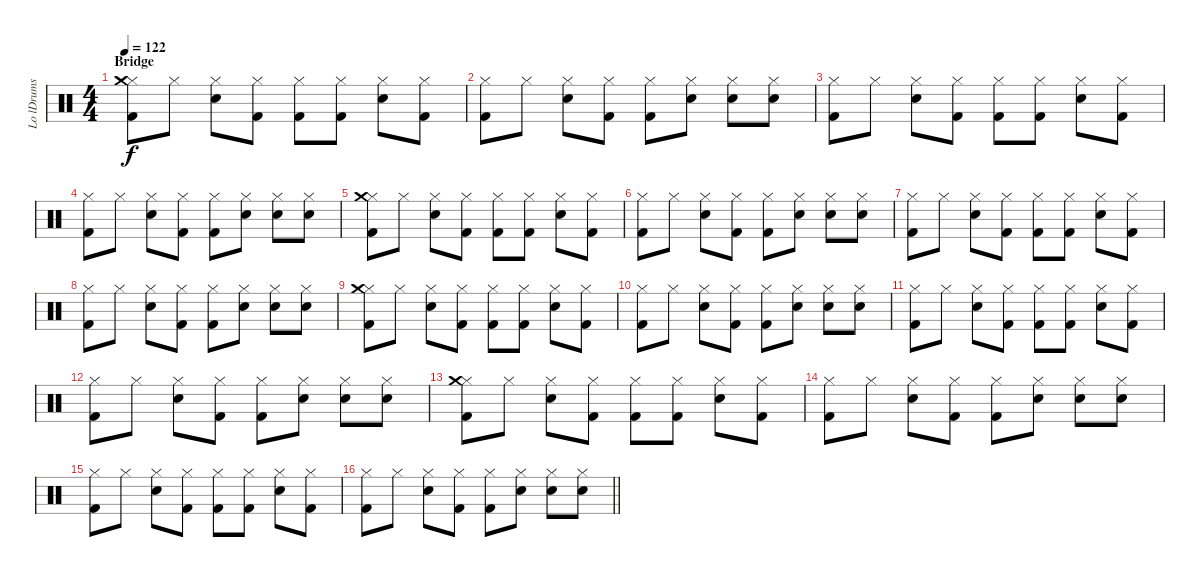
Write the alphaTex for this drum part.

\track ("Lo lDrums" "Lo lDrums") {instrument percussion}
\staff {score}
\articulation defaults
\ts (4 4)
\section ("" "Bridge")
\tempo 122
\clef neutral
\ks c
("Hi-Hat (closed)" "Crash medium (hit)" "Kick (hit) 2").8{dy f} "Hi-Hat (closed)".8 ("Hi-Hat (closed)" "Snare (hit) 2").8 ("Hi-Hat (closed)" "Kick (hit) 2").8 ("Hi-Hat (closed)" "Kick (hit) 2").8 ("Hi-Hat (closed)" "Kick (hit) 2").8 ("Hi-Hat (closed)" "Snare (hit) 2").8 ("Hi-Hat (closed)" "Kick (hit) 2").8 |
("Kick (hit) 2" "Hi-Hat (closed)").8 "Hi-Hat (closed)".8 ("Snare (hit) 2" "Hi-Hat (closed)").8 ("Kick (hit) 2" "Hi-Hat (closed)").8 ("Kick (hit) 2" "Hi-Hat (closed)").8 ("Snare (hit) 2" "Hi-Hat (closed)").8 ("Snare (hit) 2" "Hi-Hat (closed)").8 ("Snare (hit) 2" "Hi-Hat (closed)").8 |
("Kick (hit) 2" "Hi-Hat (closed)").8 "Hi-Hat (closed)".8 ("Hi-Hat (closed)" "Snare (hit) 2").8 ("Hi-Hat (closed)" "Kick (hit) 2").8 ("Hi-Hat (closed)" "Kick (hit) 2").8 ("Hi-Hat (closed)" "Kick (hit) 2").8 ("Hi-Hat (closed)" "Snare (hit) 2").8 ("Hi-Hat (closed)" "Kick (hit) 2").8 |
("Kick (hit) 2" "Hi-Hat (closed)").8 "Hi-Hat (closed)".8 ("Snare (hit) 2" "Hi-Hat (closed)").8 ("Kick (hit) 2" "Hi-Hat (closed)").8 ("Kick (hit) 2" "Hi-Hat (closed)").8 ("Snare (hit) 2" "Hi-Hat (closed)").8 ("Snare (hit) 2" "Hi-Hat (closed)").8 ("Snare (hit) 2" "Hi-Hat (closed)").8 |
("Hi-Hat (closed)" "Crash medium (hit)" "Kick (hit) 2").8 "Hi-Hat (closed)".8 ("Hi-Hat (closed)" "Snare (hit) 2").8 ("Hi-Hat (closed)" "Kick (hit) 2").8 ("Hi-Hat (closed)" "Kick (hit) 2").8 ("Hi-Hat (closed)" "Kick (hit) 2").8 ("Hi-Hat (closed)" "Snare (hit) 2").8 ("Hi-Hat (closed)" "Kick (hit) 2").8 |
("Kick (hit) 2" "Hi-Hat (closed)").8 "Hi-Hat (closed)".8 ("Snare (hit) 2" "Hi-Hat (closed)").8 ("Kick (hit) 2" "Hi-Hat (closed)").8 ("Kick (hit) 2" "Hi-Hat (closed)").8 ("Snare (hit) 2" "Hi-Hat (closed)").8 ("Snare (hit) 2" "Hi-Hat (closed)").8 ("Snare (hit) 2" "Hi-Hat (closed)").8 |
("Kick (hit) 2" "Hi-Hat (closed)").8 "Hi-Hat (closed)".8 ("Hi-Hat (closed)" "Snare (hit) 2").8 ("Hi-Hat (closed)" "Kick (hit) 2").8 ("Hi-Hat (closed)" "Kick (hit) 2").8 ("Hi-Hat (closed)" "Kick (hit) 2").8 ("Hi-Hat (closed)" "Snare (hit) 2").8 ("Hi-Hat (closed)" "Kick (hit) 2").8 |
("Kick (hit) 2" "Hi-Hat (closed)").8 "Hi-Hat (closed)".8 ("Snare (hit) 2" "Hi-Hat (closed)").8 ("Kick (hit) 2" "Hi-Hat (closed)").8 ("Kick (hit) 2" "Hi-Hat (closed)").8 ("Snare (hit) 2" "Hi-Hat (closed)").8 ("Snare (hit) 2" "Hi-Hat (closed)").8 ("Snare (hit) 2" "Hi-Hat (closed)").8 |
("Hi-Hat (closed)" "Crash medium (hit)" "Kick (hit) 2").8 "Hi-Hat (closed)".8 ("Hi-Hat (closed)" "Snare (hit) 2").8 ("Hi-Hat (closed)" "Kick (hit) 2").8 ("Hi-Hat (closed)" "Kick (hit) 2").8 ("Hi-Hat (closed)" "Kick (hit) 2").8 ("Hi-Hat (closed)" "Snare (hit) 2").8 ("Hi-Hat (closed)" "Kick (hit) 2").8 |
("Kick (hit) 2" "Hi-Hat (closed)").8 "Hi-Hat (closed)".8 ("Snare (hit) 2" "Hi-Hat (closed)").8 ("Kick (hit) 2" "Hi-Hat (closed)").8 ("Kick (hit) 2" "Hi-Hat (closed)").8 ("Snare (hit) 2" "Hi-Hat (closed)").8 ("Snare (hit) 2" "Hi-Hat (closed)").8 ("Snare (hit) 2" "Hi-Hat (closed)").8 |
("Kick (hit) 2" "Hi-Hat (closed)").8 "Hi-Hat (closed)".8 ("Hi-Hat (closed)" "Snare (hit) 2").8 ("Hi-Hat (closed)" "Kick (hit) 2").8 ("Hi-Hat (closed)" "Kick (hit) 2").8 ("Hi-Hat (closed)" "Kick (hit) 2").8 ("Hi-Hat (closed)" "Snare (hit) 2").8 ("Hi-Hat (closed)" "Kick (hit) 2").8 |
("Kick (hit) 2" "Hi-Hat (closed)").8 "Hi-Hat (closed)".8 ("Snare (hit) 2" "Hi-Hat (closed)").8 ("Kick (hit) 2" "Hi-Hat (closed)").8 ("Kick (hit) 2" "Hi-Hat (closed)").8 ("Snare (hit) 2" "Hi-Hat (closed)").8 ("Snare (hit) 2" "Hi-Hat (closed)").8 ("Snare (hit) 2" "Hi-Hat (closed)").8 |
("Hi-Hat (closed)" "Crash medium (hit)" "Kick (hit) 2").8 "Hi-Hat (closed)".8 ("Hi-Hat (closed)" "Snare (hit) 2").8 ("Hi-Hat (closed)" "Kick (hit) 2").8 ("Hi-Hat (closed)" "Kick (hit) 2").8 ("Hi-Hat (closed)" "Kick (hit) 2").8 ("Hi-Hat (closed)" "Snare (hit) 2").8 ("Hi-Hat (closed)" "Kick (hit) 2").8 |
("Kick (hit) 2" "Hi-Hat (closed)").8 "Hi-Hat (closed)".8 ("Snare (hit) 2" "Hi-Hat (closed)").8 ("Kick (hit) 2" "Hi-Hat (closed)").8 ("Kick (hit) 2" "Hi-Hat (closed)").8 ("Snare (hit) 2" "Hi-Hat (closed)").8 ("Snare (hit) 2" "Hi-Hat (closed)").8 ("Snare (hit) 2" "Hi-Hat (closed)").8 |
("Kick (hit) 2" "Hi-Hat (closed)").8 "Hi-Hat (closed)".8 ("Hi-Hat (closed)" "Snare (hit) 2").8 ("Hi-Hat (closed)" "Kick (hit) 2").8 ("Hi-Hat (closed)" "Kick (hit) 2").8 ("Hi-Hat (closed)" "Kick (hit) 2").8 ("Hi-Hat (closed)" "Snare (hit) 2").8 ("Hi-Hat (closed)" "Kick (hit) 2").8 |
\barLineRight lightlight
("Kick (hit) 2" "Hi-Hat (closed)").8 "Hi-Hat (closed)".8 ("Snare (hit) 2" "Hi-Hat (closed)").8 ("Kick (hit) 2" "Hi-Hat (closed)").8 ("Kick (hit) 2" "Hi-Hat (closed)").8 ("Snare (hit) 2" "Hi-Hat (closed)").8 ("Snare (hit) 2" "Hi-Hat (closed)").8 ("Snare (hit) 2" "Hi-Hat (closed)").8
